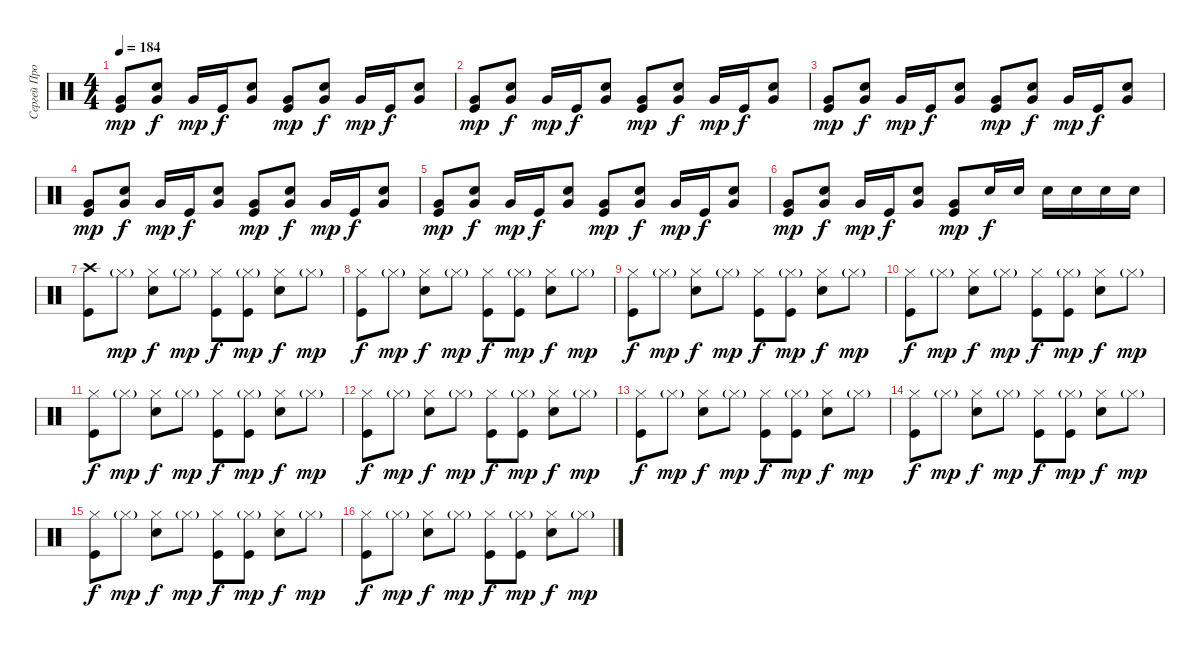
\track ("Сергей Прокофьев" "Сергей Про") {instrument percussion}
\staff {score}
\articulation defaults
\ts (4 4)
\tempo 184
\clef neutral
\ks c
("Very Low Tom (hit)" "Kick (hit)").8{dy mp} ("Very Low Tom (hit)" "Electric Snare (hit)").8{dy f} "Very Low Tom (hit)".16{dy mp} "Kick (hit)".16{dy f} ("Very Low Tom (hit)" "Electric Snare (hit)").8 ("Very Low Tom (hit)" "Kick (hit)").8{dy mp} ("Very Low Tom (hit)" "Electric Snare (hit)").8{dy f} "Very Low Tom (hit)".16{dy mp} "Kick (hit)".16{dy f} ("Very Low Tom (hit)" "Electric Snare (hit)").8 |
("Very Low Tom (hit)" "Kick (hit)").8{dy mp} ("Very Low Tom (hit)" "Electric Snare (hit)").8{dy f} "Very Low Tom (hit)".16{dy mp} "Kick (hit)".16{dy f} ("Very Low Tom (hit)" "Electric Snare (hit)").8 ("Very Low Tom (hit)" "Kick (hit)").8{dy mp} ("Very Low Tom (hit)" "Electric Snare (hit)").8{dy f} "Very Low Tom (hit)".16{dy mp} "Kick (hit)".16{dy f} ("Very Low Tom (hit)" "Electric Snare (hit)").8 |
("Very Low Tom (hit)" "Kick (hit)").8{dy mp} ("Very Low Tom (hit)" "Electric Snare (hit)").8{dy f} "Very Low Tom (hit)".16{dy mp} "Kick (hit)".16{dy f} ("Very Low Tom (hit)" "Electric Snare (hit)").8 ("Very Low Tom (hit)" "Kick (hit)").8{dy mp} ("Very Low Tom (hit)" "Electric Snare (hit)").8{dy f} "Very Low Tom (hit)".16{dy mp} "Kick (hit)".16{dy f} ("Very Low Tom (hit)" "Electric Snare (hit)").8 |
("Very Low Tom (hit)" "Kick (hit)").8{dy mp} ("Very Low Tom (hit)" "Electric Snare (hit)").8{dy f} "Very Low Tom (hit)".16{dy mp} "Kick (hit)".16{dy f} ("Very Low Tom (hit)" "Electric Snare (hit)").8 ("Very Low Tom (hit)" "Kick (hit)").8{dy mp} ("Very Low Tom (hit)" "Electric Snare (hit)").8{dy f} "Very Low Tom (hit)".16{dy mp} "Kick (hit)".16{dy f} ("Very Low Tom (hit)" "Electric Snare (hit)").8 |
("Very Low Tom (hit)" "Kick (hit)").8{dy mp} ("Very Low Tom (hit)" "Electric Snare (hit)").8{dy f} "Very Low Tom (hit)".16{dy mp} "Kick (hit)".16{dy f} ("Very Low Tom (hit)" "Electric Snare (hit)").8 ("Very Low Tom (hit)" "Kick (hit)").8{dy mp} ("Very Low Tom (hit)" "Electric Snare (hit)").8{dy f} "Very Low Tom (hit)".16{dy mp} "Kick (hit)".16{dy f} ("Very Low Tom (hit)" "Electric Snare (hit)").8 |
("Very Low Tom (hit)" "Kick (hit)").8{dy mp} ("Very Low Tom (hit)" "Electric Snare (hit)").8{dy f} "Very Low Tom (hit)".16{dy mp} "Kick (hit)".16{dy f} ("Very Low Tom (hit)" "Electric Snare (hit)").8 ("Very Low Tom (hit)" "Kick (hit)").8{dy mp} "Electric Snare (hit)".16{dy f} "Electric Snare (hit)".16 "Electric Snare (hit)".16 "Electric Snare (hit)".16 "Electric Snare (hit)".16 "Electric Snare (hit)".16 |
("Crash high (hit)" "Kick (hit)").8 "Hi-Hat (closed)"{g}.8{dy mp} ("Hi-Hat (closed)" "Electric Snare (hit)").8{dy f} "Hi-Hat (closed)"{g}.8{dy mp} ("Hi-Hat (closed)" "Kick (hit)").8{dy f} ("Hi-Hat (closed)"{g} "Kick (hit)").8{dy mp} ("Hi-Hat (closed)" "Electric Snare (hit)").8{dy f} "Hi-Hat (closed)"{g}.8{dy mp} |
("Hi-Hat (closed)" "Kick (hit)").8{dy f} "Hi-Hat (closed)"{g}.8{dy mp} ("Hi-Hat (closed)" "Electric Snare (hit)").8{dy f} "Hi-Hat (closed)"{g}.8{dy mp} ("Hi-Hat (closed)" "Kick (hit)").8{dy f} ("Hi-Hat (closed)"{g} "Kick (hit)").8{dy mp} ("Hi-Hat (closed)" "Electric Snare (hit)").8{dy f} "Hi-Hat (closed)"{g}.8{dy mp} |
("Hi-Hat (closed)" "Kick (hit)").8{dy f} "Hi-Hat (closed)"{g}.8{dy mp} ("Hi-Hat (closed)" "Electric Snare (hit)").8{dy f} "Hi-Hat (closed)"{g}.8{dy mp} ("Hi-Hat (closed)" "Kick (hit)").8{dy f} ("Hi-Hat (closed)"{g} "Kick (hit)").8{dy mp} ("Hi-Hat (closed)" "Electric Snare (hit)").8{dy f} "Hi-Hat (closed)"{g}.8{dy mp} |
("Hi-Hat (closed)" "Kick (hit)").8{dy f} "Hi-Hat (closed)"{g}.8{dy mp} ("Hi-Hat (closed)" "Electric Snare (hit)").8{dy f} "Hi-Hat (closed)"{g}.8{dy mp} ("Hi-Hat (closed)" "Kick (hit)").8{dy f} ("Hi-Hat (closed)"{g} "Kick (hit)").8{dy mp} ("Hi-Hat (closed)" "Electric Snare (hit)").8{dy f} "Hi-Hat (closed)"{g}.8{dy mp} |
("Hi-Hat (closed)" "Kick (hit)").8{dy f} "Hi-Hat (closed)"{g}.8{dy mp} ("Hi-Hat (closed)" "Electric Snare (hit)").8{dy f} "Hi-Hat (closed)"{g}.8{dy mp} ("Hi-Hat (closed)" "Kick (hit)").8{dy f} ("Hi-Hat (closed)"{g} "Kick (hit)").8{dy mp} ("Hi-Hat (closed)" "Electric Snare (hit)").8{dy f} "Hi-Hat (closed)"{g}.8{dy mp} |
("Hi-Hat (closed)" "Kick (hit)").8{dy f} "Hi-Hat (closed)"{g}.8{dy mp} ("Hi-Hat (closed)" "Electric Snare (hit)").8{dy f} "Hi-Hat (closed)"{g}.8{dy mp} ("Hi-Hat (closed)" "Kick (hit)").8{dy f} ("Hi-Hat (closed)"{g} "Kick (hit)").8{dy mp} ("Hi-Hat (closed)" "Electric Snare (hit)").8{dy f} "Hi-Hat (closed)"{g}.8{dy mp} |
("Hi-Hat (closed)" "Kick (hit)").8{dy f} "Hi-Hat (closed)"{g}.8{dy mp} ("Hi-Hat (closed)" "Electric Snare (hit)").8{dy f} "Hi-Hat (closed)"{g}.8{dy mp} ("Hi-Hat (closed)" "Kick (hit)").8{dy f} ("Hi-Hat (closed)"{g} "Kick (hit)").8{dy mp} ("Hi-Hat (closed)" "Electric Snare (hit)").8{dy f} "Hi-Hat (closed)"{g}.8{dy mp} |
("Hi-Hat (closed)" "Kick (hit)").8{dy f} "Hi-Hat (closed)"{g}.8{dy mp} ("Hi-Hat (closed)" "Electric Snare (hit)").8{dy f} "Hi-Hat (closed)"{g}.8{dy mp} ("Hi-Hat (closed)" "Kick (hit)").8{dy f} ("Hi-Hat (closed)"{g} "Kick (hit)").8{dy mp} ("Hi-Hat (closed)" "Electric Snare (hit)").8{dy f} "Hi-Hat (closed)"{g}.8{dy mp} |
("Hi-Hat (closed)" "Kick (hit)").8{dy f} "Hi-Hat (closed)"{g}.8{dy mp} ("Hi-Hat (closed)" "Electric Snare (hit)").8{dy f} "Hi-Hat (closed)"{g}.8{dy mp} ("Hi-Hat (closed)" "Kick (hit)").8{dy f} ("Hi-Hat (closed)"{g} "Kick (hit)").8{dy mp} ("Hi-Hat (closed)" "Electric Snare (hit)").8{dy f} "Hi-Hat (closed)"{g}.8{dy mp} |
("Hi-Hat (closed)" "Kick (hit)").8{dy f} "Hi-Hat (closed)"{g}.8{dy mp} ("Hi-Hat (closed)" "Electric Snare (hit)").8{dy f} "Hi-Hat (closed)"{g}.8{dy mp} ("Hi-Hat (closed)" "Kick (hit)").8{dy f} ("Hi-Hat (closed)"{g} "Kick (hit)").8{dy mp} ("Hi-Hat (closed)" "Electric Snare (hit)").8{dy f} "Hi-Hat (closed)"{g}.8{dy mp}
